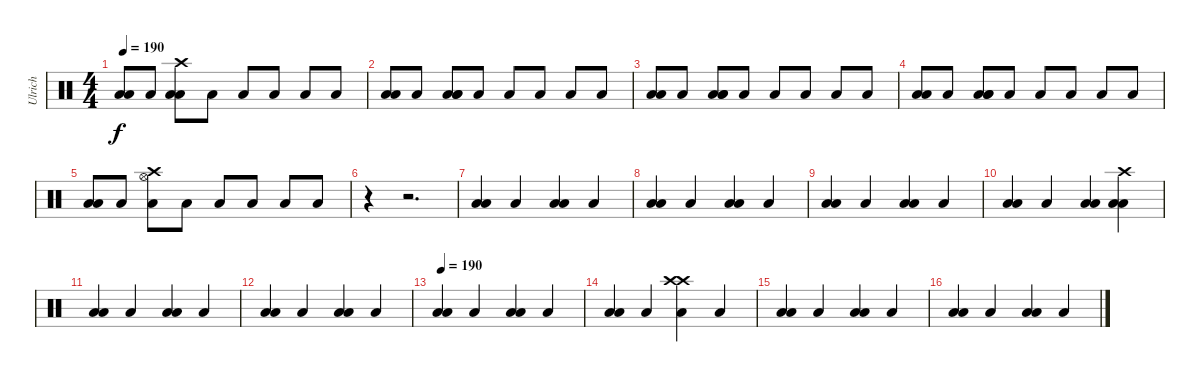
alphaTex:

\track ("Ulrich" "Ulrich") {instrument percussion}
\staff {score}
\articulation defaults
\ts (4 4)
\tempo 190
\clef neutral
\ks c
("Low Tom (hit)" "Low Tom (hit)").8{dy f} "Low Tom (hit)".8 ("Low Tom (hit)" "Low Tom (hit)" "Crash high (hit)").8 "Low Tom (hit)".8 "Low Tom (hit)".8 "Low Tom (hit)".8 "Low Tom (hit)".8 "Low Tom (hit)".8 |
("Low Tom (hit)" "Low Tom (hit)").8 "Low Tom (hit)".8 ("Low Tom (hit)" "Low Tom (hit)" "Low Tom (hit)").8 "Low Tom (hit)".8 "Low Tom (hit)".8 "Low Tom (hit)".8 "Low Tom (hit)".8 "Low Tom (hit)".8 |
("Low Tom (hit)" "Low Tom (hit)").8 "Low Tom (hit)".8 ("Low Tom (hit)" "Low Tom (hit)" "Low Tom (hit)").8 "Low Tom (hit)".8 "Low Tom (hit)".8 "Low Tom (hit)".8 "Low Tom (hit)".8 "Low Tom (hit)".8 |
("Low Tom (hit)" "Low Tom (hit)").8 "Low Tom (hit)".8 ("Low Tom (hit)" "Low Tom (hit)" "Low Tom (hit)").8 "Low Tom (hit)".8 "Low Tom (hit)".8 "Low Tom (hit)".8 "Low Tom (hit)".8 "Low Tom (hit)".8 |
("Low Tom (hit)" "Low Tom (hit)").8 "Low Tom (hit)".8 ("Low Tom (hit)" "Hi-Hat (open)" "Crash high (hit)").8 "Low Tom (hit)".8 "Low Tom (hit)".8 "Low Tom (hit)".8 "Low Tom (hit)".8 "Low Tom (hit)".8 |
r.4 r.2{d} |
("Low Tom (hit)" "Low Tom (hit)").4 "Low Tom (hit)".4 ("Low Tom (hit)" "Low Tom (hit)").4 "Low Tom (hit)".4 |
("Low Tom (hit)" "Low Tom (hit)").4 "Low Tom (hit)".4 ("Low Tom (hit)" "Low Tom (hit)").4 "Low Tom (hit)".4 |
("Low Tom (hit)" "Low Tom (hit)").4 "Low Tom (hit)".4 ("Low Tom (hit)" "Low Tom (hit)").4 "Low Tom (hit)".4 |
("Low Tom (hit)" "Low Tom (hit)").4 "Low Tom (hit)".4 ("Low Tom (hit)" "Low Tom (hit)").4 ("Low Tom (hit)" "Low Tom (hit)" "Crash high (hit)").4 |
("Low Tom (hit)" "Low Tom (hit)").4 "Low Tom (hit)".4 ("Low Tom (hit)" "Low Tom (hit)").4 "Low Tom (hit)".4 |
("Low Tom (hit)" "Low Tom (hit)").4 "Low Tom (hit)".4 ("Low Tom (hit)" "Low Tom (hit)").4 "Low Tom (hit)".4 |
\tempo 190
("Low Tom (hit)" "Low Tom (hit)").4 "Low Tom (hit)".4 ("Low Tom (hit)" "Low Tom (hit)").4 "Low Tom (hit)".4 |
("Low Tom (hit)" "Low Tom (hit)").4 "Low Tom (hit)".4 ("Low Tom (hit)" "Crash high (hit)" "Crash high (hit)").4 "Low Tom (hit)".4 |
("Low Tom (hit)" "Low Tom (hit)").4 "Low Tom (hit)".4 ("Low Tom (hit)" "Low Tom (hit)").4 "Low Tom (hit)".4 |
("Low Tom (hit)" "Low Tom (hit)").4 "Low Tom (hit)".4 ("Low Tom (hit)" "Low Tom (hit)").4 "Low Tom (hit)".4
